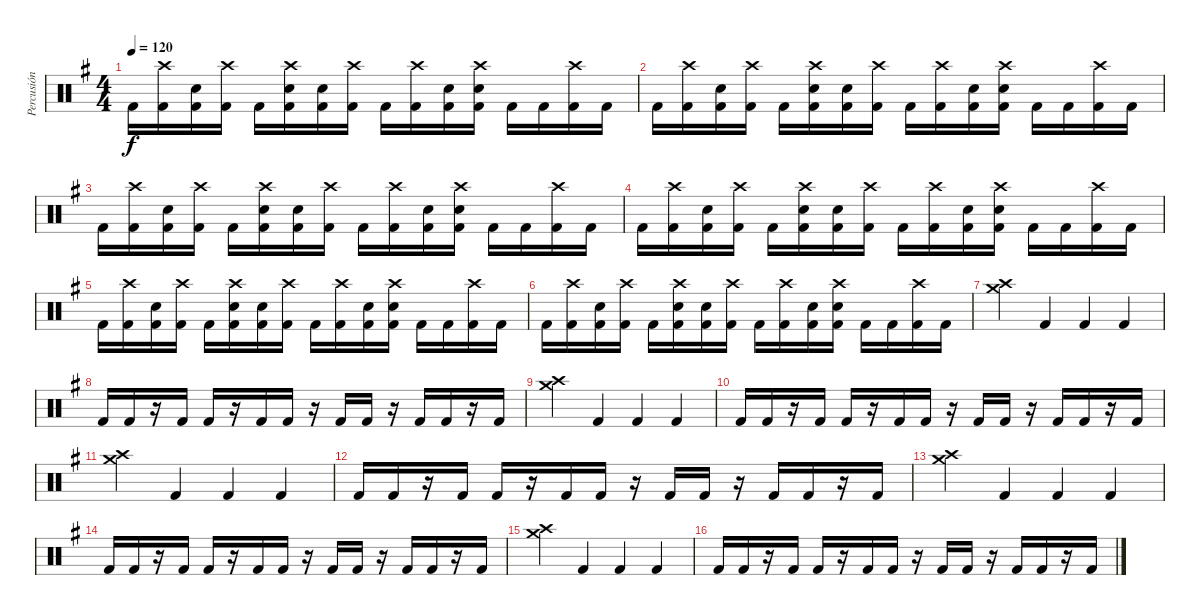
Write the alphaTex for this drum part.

\track ("Percusión" "Percusión") {instrument percussion}
\staff {score}
\articulation defaults
\ts (4 4)
\tempo 120
\clef neutral
\ks g "Kick (hit) 2".16{dy f}
("Crash high (hit)" "Kick (hit) 2").16 ("Snare (hit) 2" "Kick (hit) 2").16 ("Crash high (hit)" "Kick (hit) 2").16 "Kick (hit) 2".16 ("Crash high (hit)" "Snare (hit) 2" "Kick (hit) 2").16 ("Snare (hit) 2" "Kick (hit) 2").16 ("Crash high (hit)" "Kick (hit) 2").16 "Kick (hit) 2".16 ("Crash high (hit)" "Kick (hit) 2").16 ("Snare (hit) 2" "Kick (hit) 2").16 ("Crash high (hit)" "Snare (hit) 2" "Kick (hit) 2").16 "Kick (hit) 2".16 "Kick (hit) 2".16 ("Crash high (hit)" "Kick (hit) 2").16 "Kick (hit) 2".16 |
"Kick (hit) 2".16 ("Crash high (hit)" "Kick (hit) 2").16 ("Snare (hit) 2" "Kick (hit) 2").16 ("Crash high (hit)" "Kick (hit) 2").16 "Kick (hit) 2".16 ("Crash high (hit)" "Snare (hit) 2" "Kick (hit) 2").16 ("Snare (hit) 2" "Kick (hit) 2").16 ("Crash high (hit)" "Kick (hit) 2").16 "Kick (hit) 2".16 ("Crash high (hit)" "Kick (hit) 2").16 ("Snare (hit) 2" "Kick (hit) 2").16 ("Crash high (hit)" "Snare (hit) 2" "Kick (hit) 2").16 "Kick (hit) 2".16 "Kick (hit) 2".16 ("Crash high (hit)" "Kick (hit) 2").16 "Kick (hit) 2".16 |
"Kick (hit) 2".16 ("Crash high (hit)" "Kick (hit) 2").16 ("Snare (hit) 2" "Kick (hit) 2").16 ("Crash high (hit)" "Kick (hit) 2").16 "Kick (hit) 2".16 ("Crash high (hit)" "Snare (hit) 2" "Kick (hit) 2").16 ("Snare (hit) 2" "Kick (hit) 2").16 ("Crash high (hit)" "Kick (hit) 2").16 "Kick (hit) 2".16 ("Crash high (hit)" "Kick (hit) 2").16 ("Snare (hit) 2" "Kick (hit) 2").16 ("Crash high (hit)" "Snare (hit) 2" "Kick (hit) 2").16 "Kick (hit) 2".16 "Kick (hit) 2".16 ("Crash high (hit)" "Kick (hit) 2").16 "Kick (hit) 2".16 |
"Kick (hit) 2".16 ("Crash high (hit)" "Kick (hit) 2").16 ("Snare (hit) 2" "Kick (hit) 2").16 ("Crash high (hit)" "Kick (hit) 2").16 "Kick (hit) 2".16 ("Crash high (hit)" "Snare (hit) 2" "Kick (hit) 2").16 ("Snare (hit) 2" "Kick (hit) 2").16 ("Crash high (hit)" "Kick (hit) 2").16 "Kick (hit) 2".16 ("Crash high (hit)" "Kick (hit) 2").16 ("Snare (hit) 2" "Kick (hit) 2").16 ("Crash high (hit)" "Snare (hit) 2" "Kick (hit) 2").16 "Kick (hit) 2".16 "Kick (hit) 2".16 ("Crash high (hit)" "Kick (hit) 2").16 "Kick (hit) 2".16 |
"Kick (hit) 2".16 ("Crash high (hit)" "Kick (hit) 2").16 ("Snare (hit) 2" "Kick (hit) 2").16 ("Crash high (hit)" "Kick (hit) 2").16 "Kick (hit) 2".16 ("Crash high (hit)" "Snare (hit) 2" "Kick (hit) 2").16 ("Snare (hit) 2" "Kick (hit) 2").16 ("Crash high (hit)" "Kick (hit) 2").16 "Kick (hit) 2".16 ("Crash high (hit)" "Kick (hit) 2").16 ("Snare (hit) 2" "Kick (hit) 2").16 ("Crash high (hit)" "Snare (hit) 2" "Kick (hit) 2").16 "Kick (hit) 2".16 "Kick (hit) 2".16 ("Crash high (hit)" "Kick (hit) 2").16 "Kick (hit) 2".16 |
"Kick (hit) 2".16 ("Crash high (hit)" "Kick (hit) 2").16 ("Snare (hit) 2" "Kick (hit) 2").16 ("Crash high (hit)" "Kick (hit) 2").16 "Kick (hit) 2".16 ("Crash high (hit)" "Snare (hit) 2" "Kick (hit) 2").16 ("Snare (hit) 2" "Kick (hit) 2").16 ("Crash high (hit)" "Kick (hit) 2").16 "Kick (hit) 2".16 ("Crash high (hit)" "Kick (hit) 2").16 ("Snare (hit) 2" "Kick (hit) 2").16 ("Crash high (hit)" "Snare (hit) 2" "Kick (hit) 2").16 "Kick (hit) 2".16 "Kick (hit) 2".16 ("Crash high (hit)" "Kick (hit) 2").16 "Kick (hit) 2".16 |
("Crash medium (hit)" "Crash high (hit)").4 "Kick (hit) 2".4 "Kick (hit) 2".4 "Kick (hit) 2".4 |
"Kick (hit) 2".16 "Kick (hit) 2".16 r.16 "Kick (hit) 2".16 "Kick (hit) 2".16 r.16 "Kick (hit) 2".16 "Kick (hit) 2".16 r.16 "Kick (hit) 2".16 "Kick (hit) 2".16 r.16 "Kick (hit) 2".16 "Kick (hit) 2".16 r.16 "Kick (hit) 2".16 |
("Crash medium (hit)" "Crash high (hit)").4 "Kick (hit) 2".4 "Kick (hit) 2".4 "Kick (hit) 2".4 |
"Kick (hit) 2".16 "Kick (hit) 2".16 r.16 "Kick (hit) 2".16 "Kick (hit) 2".16 r.16 "Kick (hit) 2".16 "Kick (hit) 2".16 r.16 "Kick (hit) 2".16 "Kick (hit) 2".16 r.16 "Kick (hit) 2".16 "Kick (hit) 2".16 r.16 "Kick (hit) 2".16 |
("Crash medium (hit)" "Crash high (hit)").4 "Kick (hit) 2".4 "Kick (hit) 2".4 "Kick (hit) 2".4 |
"Kick (hit) 2".16 "Kick (hit) 2".16 r.16 "Kick (hit) 2".16 "Kick (hit) 2".16 r.16 "Kick (hit) 2".16 "Kick (hit) 2".16 r.16 "Kick (hit) 2".16 "Kick (hit) 2".16 r.16 "Kick (hit) 2".16 "Kick (hit) 2".16 r.16 "Kick (hit) 2".16 |
("Crash medium (hit)" "Crash high (hit)").4 "Kick (hit) 2".4 "Kick (hit) 2".4 "Kick (hit) 2".4 |
"Kick (hit) 2".16 "Kick (hit) 2".16 r.16 "Kick (hit) 2".16 "Kick (hit) 2".16 r.16 "Kick (hit) 2".16 "Kick (hit) 2".16 r.16 "Kick (hit) 2".16 "Kick (hit) 2".16 r.16 "Kick (hit) 2".16 "Kick (hit) 2".16 r.16 "Kick (hit) 2".16 |
("Crash medium (hit)" "Crash high (hit)").4 "Kick (hit) 2".4 "Kick (hit) 2".4 "Kick (hit) 2".4 |
"Kick (hit) 2".16 "Kick (hit) 2".16 r.16 "Kick (hit) 2".16 "Kick (hit) 2".16 r.16 "Kick (hit) 2".16 "Kick (hit) 2".16 r.16 "Kick (hit) 2".16 "Kick (hit) 2".16 r.16 "Kick (hit) 2".16 "Kick (hit) 2".16 r.16 "Kick (hit) 2".16
